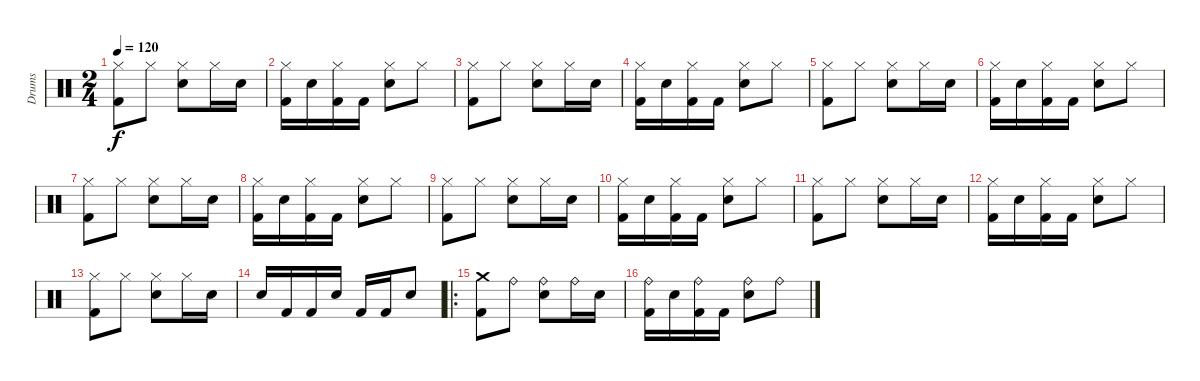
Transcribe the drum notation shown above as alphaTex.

\track ("Drums" "Drums") {instrument percussion}
\staff {score}
\articulation defaults
\ts (2 4)
\tempo 120
\clef neutral
\ks aminor
("Hi-Hat (closed)" "Kick (hit) 2").8{dy f} "Hi-Hat (closed)".8 ("Hi-Hat (closed)" "Electric Snare (hit)").8 "Hi-Hat (closed)".16 "Electric Snare (hit)".16 |
("Kick (hit) 2" "Hi-Hat (closed)").16 "Electric Snare (hit)".16 ("Kick (hit) 2" "Hi-Hat (closed)").16 "Kick (hit) 2".16 ("Electric Snare (hit)" "Hi-Hat (closed)").8 "Hi-Hat (closed)".8 |
("Hi-Hat (closed)" "Kick (hit) 2").8 "Hi-Hat (closed)".8 ("Hi-Hat (closed)" "Electric Snare (hit)").8 "Hi-Hat (closed)".16 "Electric Snare (hit)".16 |
("Kick (hit) 2" "Hi-Hat (closed)").16 "Electric Snare (hit)".16 ("Kick (hit) 2" "Hi-Hat (closed)").16 "Kick (hit) 2".16 ("Electric Snare (hit)" "Hi-Hat (closed)").8 "Hi-Hat (closed)".8 |
("Hi-Hat (closed)" "Kick (hit) 2").8 "Hi-Hat (closed)".8 ("Hi-Hat (closed)" "Electric Snare (hit)").8 "Hi-Hat (closed)".16 "Electric Snare (hit)".16 |
("Kick (hit) 2" "Hi-Hat (closed)").16 "Electric Snare (hit)".16 ("Kick (hit) 2" "Hi-Hat (closed)").16 "Kick (hit) 2".16 ("Electric Snare (hit)" "Hi-Hat (closed)").8 "Hi-Hat (closed)".8 |
("Hi-Hat (closed)" "Kick (hit) 2").8 "Hi-Hat (closed)".8 ("Hi-Hat (closed)" "Electric Snare (hit)").8 "Hi-Hat (closed)".16 "Electric Snare (hit)".16 |
("Kick (hit) 2" "Hi-Hat (closed)").16 "Electric Snare (hit)".16 ("Kick (hit) 2" "Hi-Hat (closed)").16 "Kick (hit) 2".16 ("Electric Snare (hit)" "Hi-Hat (closed)").8 "Hi-Hat (closed)".8 |
("Hi-Hat (closed)" "Kick (hit) 2").8 "Hi-Hat (closed)".8 ("Hi-Hat (closed)" "Electric Snare (hit)").8 "Hi-Hat (closed)".16 "Electric Snare (hit)".16 |
("Kick (hit) 2" "Hi-Hat (closed)").16 "Electric Snare (hit)".16 ("Kick (hit) 2" "Hi-Hat (closed)").16 "Kick (hit) 2".16 ("Electric Snare (hit)" "Hi-Hat (closed)").8 "Hi-Hat (closed)".8 |
("Hi-Hat (closed)" "Kick (hit) 2").8 "Hi-Hat (closed)".8 ("Hi-Hat (closed)" "Electric Snare (hit)").8 "Hi-Hat (closed)".16 "Electric Snare (hit)".16 |
("Kick (hit) 2" "Hi-Hat (closed)").16 "Electric Snare (hit)".16 ("Kick (hit) 2" "Hi-Hat (closed)").16 "Kick (hit) 2".16 ("Electric Snare (hit)" "Hi-Hat (closed)").8 "Hi-Hat (closed)".8 |
("Hi-Hat (closed)" "Kick (hit) 2").8 "Hi-Hat (closed)".8 ("Hi-Hat (closed)" "Electric Snare (hit)").8 "Hi-Hat (closed)".16 "Electric Snare (hit)".16 |
"Electric Snare (hit)".16 "Kick (hit) 2".16 "Kick (hit) 2".16 "Electric Snare (hit)".16 "Kick (hit) 2".16 "Kick (hit) 2".16 "Electric Snare (hit)".8 |
\ro
("Crash medium (hit)" "Kick (hit) 2").8 "Ride (bell)".8 ("Ride (bell)" "Electric Snare (hit)").8 "Ride (bell)".16 "Electric Snare (hit)".16 |
("Kick (hit) 2" "Ride (bell)").16 "Electric Snare (hit)".16 ("Kick (hit) 2" "Ride (bell)").16 "Kick (hit) 2".16 ("Electric Snare (hit)" "Ride (bell)").8 "Ride (bell)".8
